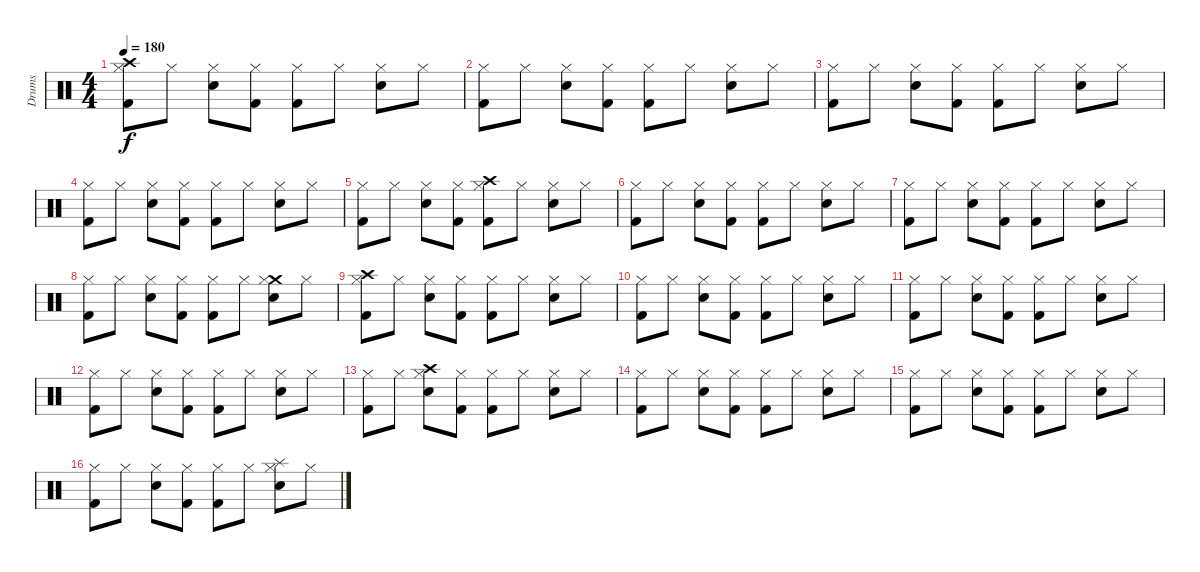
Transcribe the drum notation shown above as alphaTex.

\track ("Drums" "Drums") {instrument percussion}
\staff {score}
\articulation defaults
\ts (4 4)
\tempo 180
\clef neutral
\ks c
("Crash high (hit)" "Hi-Hat (closed)" "Kick (hit) 2").8{dy f} "Hi-Hat (closed)".8 ("Hi-Hat (closed)" "Snare (hit) 2").8 ("Hi-Hat (closed)" "Kick (hit) 2").8 ("Hi-Hat (closed)" "Kick (hit) 2").8 "Hi-Hat (closed)".8 ("Hi-Hat (closed)" "Snare (hit) 2").8 "Hi-Hat (closed)".8 |
("Hi-Hat (closed)" "Kick (hit) 2").8 "Hi-Hat (closed)".8 ("Hi-Hat (closed)" "Snare (hit) 2").8 ("Hi-Hat (closed)" "Kick (hit) 2").8 ("Hi-Hat (closed)" "Kick (hit) 2").8 "Hi-Hat (closed)".8 ("Hi-Hat (closed)" "Snare (hit) 2").8 "Hi-Hat (closed)".8 |
("Hi-Hat (closed)" "Kick (hit) 2").8 "Hi-Hat (closed)".8 ("Hi-Hat (closed)" "Snare (hit) 2").8 ("Hi-Hat (closed)" "Kick (hit) 2").8 ("Hi-Hat (closed)" "Kick (hit) 2").8 "Hi-Hat (closed)".8 ("Hi-Hat (closed)" "Snare (hit) 2").8 "Hi-Hat (closed)".8 |
("Hi-Hat (closed)" "Kick (hit) 2").8 "Hi-Hat (closed)".8 ("Hi-Hat (closed)" "Snare (hit) 2").8 ("Hi-Hat (closed)" "Kick (hit) 2").8 ("Hi-Hat (closed)" "Kick (hit) 2").8 "Hi-Hat (closed)".8 ("Hi-Hat (closed)" "Snare (hit) 2").8 "Hi-Hat (closed)".8 |
("Hi-Hat (closed)" "Kick (hit) 2").8 "Hi-Hat (closed)".8 ("Hi-Hat (closed)" "Snare (hit) 2").8 ("Hi-Hat (closed)" "Kick (hit) 2").8 ("Crash high (hit)" "Hi-Hat (closed)" "Kick (hit) 2").8 "Hi-Hat (closed)".8 ("Hi-Hat (closed)" "Snare (hit) 2").8 "Hi-Hat (closed)".8 |
("Hi-Hat (closed)" "Kick (hit) 2").8 "Hi-Hat (closed)".8 ("Hi-Hat (closed)" "Snare (hit) 2").8 ("Hi-Hat (closed)" "Kick (hit) 2").8 ("Hi-Hat (closed)" "Kick (hit) 2").8 "Hi-Hat (closed)".8 ("Hi-Hat (closed)" "Snare (hit) 2").8 "Hi-Hat (closed)".8 |
("Hi-Hat (closed)" "Kick (hit) 2").8 "Hi-Hat (closed)".8 ("Hi-Hat (closed)" "Snare (hit) 2").8 ("Hi-Hat (closed)" "Kick (hit) 2").8 ("Hi-Hat (closed)" "Kick (hit) 2").8 "Hi-Hat (closed)".8 ("Hi-Hat (closed)" "Snare (hit) 2").8 "Hi-Hat (closed)".8 |
("Hi-Hat (closed)" "Kick (hit) 2").8 "Hi-Hat (closed)".8 ("Hi-Hat (closed)" "Snare (hit) 2").8 ("Hi-Hat (closed)" "Kick (hit) 2").8 ("Hi-Hat (closed)" "Kick (hit) 2").8 "Hi-Hat (closed)".8 ("Crash medium (hit)" "Hi-Hat (closed)" "Snare (hit) 2").8 "Hi-Hat (closed)".8 |
("Crash high (hit)" "Hi-Hat (closed)" "Kick (hit) 2").8 "Hi-Hat (closed)".8 ("Hi-Hat (closed)" "Snare (hit) 2").8 ("Hi-Hat (closed)" "Kick (hit) 2").8 ("Hi-Hat (closed)" "Kick (hit) 2").8 "Hi-Hat (closed)".8 ("Hi-Hat (closed)" "Snare (hit) 2").8 "Hi-Hat (closed)".8 |
("Hi-Hat (closed)" "Kick (hit) 2").8 "Hi-Hat (closed)".8 ("Hi-Hat (closed)" "Snare (hit) 2").8 ("Hi-Hat (closed)" "Kick (hit) 2").8 ("Hi-Hat (closed)" "Kick (hit) 2").8 "Hi-Hat (closed)".8 ("Hi-Hat (closed)" "Snare (hit) 2").8 "Hi-Hat (closed)".8 |
("Hi-Hat (closed)" "Kick (hit) 2").8 "Hi-Hat (closed)".8 ("Hi-Hat (closed)" "Snare (hit) 2").8 ("Hi-Hat (closed)" "Kick (hit) 2").8 ("Hi-Hat (closed)" "Kick (hit) 2").8 "Hi-Hat (closed)".8 ("Hi-Hat (closed)" "Snare (hit) 2").8 "Hi-Hat (closed)".8 |
("Hi-Hat (closed)" "Kick (hit) 2").8 "Hi-Hat (closed)".8 ("Hi-Hat (closed)" "Snare (hit) 2").8 ("Hi-Hat (closed)" "Kick (hit) 2").8 ("Hi-Hat (closed)" "Kick (hit) 2").8 "Hi-Hat (closed)".8 ("Hi-Hat (closed)" "Snare (hit) 2").8 "Hi-Hat (closed)".8 |
("Hi-Hat (closed)" "Kick (hit) 2").8 "Hi-Hat (closed)".8 ("Crash high (hit)" "Hi-Hat (closed)" "Snare (hit) 2").8 ("Hi-Hat (closed)" "Kick (hit) 2").8 ("Hi-Hat (closed)" "Kick (hit) 2").8 "Hi-Hat (closed)".8 ("Hi-Hat (closed)" "Snare (hit) 2").8 "Hi-Hat (closed)".8 |
("Hi-Hat (closed)" "Kick (hit) 2").8 "Hi-Hat (closed)".8 ("Hi-Hat (closed)" "Snare (hit) 2").8 ("Hi-Hat (closed)" "Kick (hit) 2").8 ("Hi-Hat (closed)" "Kick (hit) 2").8 "Hi-Hat (closed)".8 ("Hi-Hat (closed)" "Snare (hit) 2").8 "Hi-Hat (closed)".8 |
("Hi-Hat (closed)" "Kick (hit) 2").8 "Hi-Hat (closed)".8 ("Hi-Hat (closed)" "Snare (hit) 2").8 ("Hi-Hat (closed)" "Kick (hit) 2").8 ("Hi-Hat (closed)" "Kick (hit) 2").8 "Hi-Hat (closed)".8 ("Hi-Hat (closed)" "Snare (hit) 2").8 "Hi-Hat (closed)".8 |
("Hi-Hat (closed)" "Kick (hit) 2").8 "Hi-Hat (closed)".8 ("Hi-Hat (closed)" "Snare (hit) 2").8 ("Hi-Hat (closed)" "Kick (hit) 2").8 ("Hi-Hat (closed)" "Kick (hit) 2").8 "Hi-Hat (closed)".8 ("Splash (hit)" "Hi-Hat (closed)" "Snare (hit) 2").8 "Hi-Hat (closed)".8
